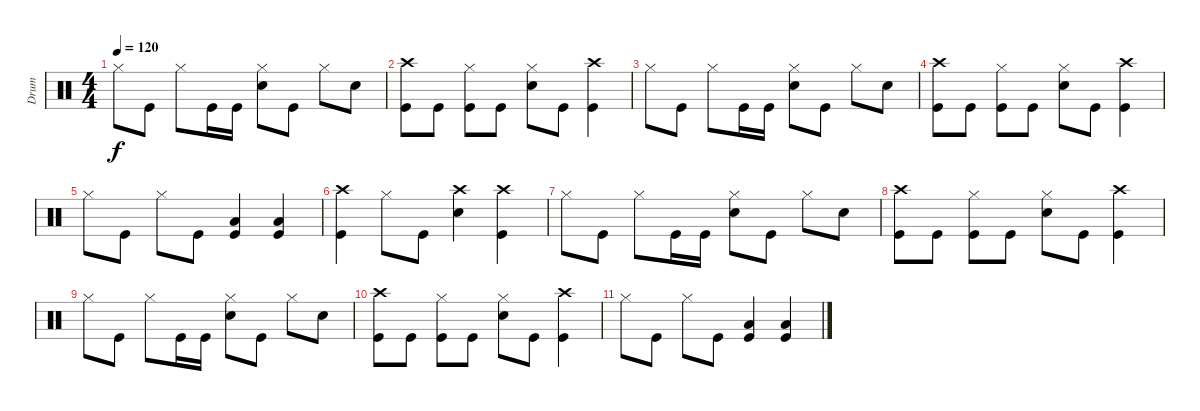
\track ("Drum" "Drum") {instrument percussion}
\staff {score}
\articulation defaults
\ts (4 4)
\tempo 120
\clef neutral
\ks c "Hi-Hat (closed)".8{dy f} "Kick (hit)".8 "Hi-Hat (closed)".8 "Kick (hit)".16 "Kick (hit)".16
("Hi-Hat (closed)" "Snare (hit) 2").8 "Kick (hit)".8 "Hi-Hat (closed)".8 "Snare (hit) 2".8 |
("Crash high (hit)" "Kick (hit)").8 "Kick (hit)".8 ("Hi-Hat (closed)" "Kick (hit)").8 "Kick (hit)".8 ("Hi-Hat (closed)" "Snare (hit) 2").8 "Kick (hit)".8 ("Crash high (hit)" "Kick (hit)").4 |
"Hi-Hat (closed)".8 "Kick (hit)".8 "Hi-Hat (closed)".8 "Kick (hit)".16 "Kick (hit)".16 ("Hi-Hat (closed)" "Snare (hit) 2").8 "Kick (hit)".8 "Hi-Hat (closed)".8 "Snare (hit) 2".8 |
("Crash high (hit)" "Kick (hit)").8 "Kick (hit)".8 ("Hi-Hat (closed)" "Kick (hit)").8 "Kick (hit)".8 ("Hi-Hat (closed)" "Snare (hit) 2").8 "Kick (hit)".8 ("Crash high (hit)" "Kick (hit)").4 |
"Hi-Hat (closed)".8 "Kick (hit)".8 "Hi-Hat (closed)".8 "Kick (hit)".8 ("Low Floor Tom (hit)" "Kick (hit)").4 ("Low Floor Tom (hit)" "Kick (hit)").4 |
("Crash high (hit)" "Kick (hit)").4 "Hi-Hat (closed)".8 "Kick (hit)".8 ("Crash high (hit)" "Snare (hit) 2").4 ("Crash high (hit)" "Kick (hit)").4 |
"Hi-Hat (closed)".8 "Kick (hit)".8 "Hi-Hat (closed)".8 "Kick (hit)".16 "Kick (hit)".16 ("Hi-Hat (closed)" "Snare (hit) 2").8 "Kick (hit)".8 "Hi-Hat (closed)".8 "Snare (hit) 2".8 |
("Crash high (hit)" "Kick (hit)").8 "Kick (hit)".8 ("Hi-Hat (closed)" "Kick (hit)").8 "Kick (hit)".8 ("Hi-Hat (closed)" "Snare (hit) 2").8 "Kick (hit)".8 ("Crash high (hit)" "Kick (hit)").4 |
"Hi-Hat (closed)".8 "Kick (hit)".8 "Hi-Hat (closed)".8 "Kick (hit)".16 "Kick (hit)".16 ("Hi-Hat (closed)" "Snare (hit) 2").8 "Kick (hit)".8 "Hi-Hat (closed)".8 "Snare (hit) 2".8 |
("Crash high (hit)" "Kick (hit)").8 "Kick (hit)".8 ("Hi-Hat (closed)" "Kick (hit)").8 "Kick (hit)".8 ("Hi-Hat (closed)" "Snare (hit) 2").8 "Kick (hit)".8 ("Crash high (hit)" "Kick (hit)").4 |
"Hi-Hat (closed)".8 "Kick (hit)".8 "Hi-Hat (closed)".8 "Kick (hit)".8 ("Low Floor Tom (hit)" "Kick (hit)").4 ("Low Floor Tom (hit)" "Kick (hit)").4
